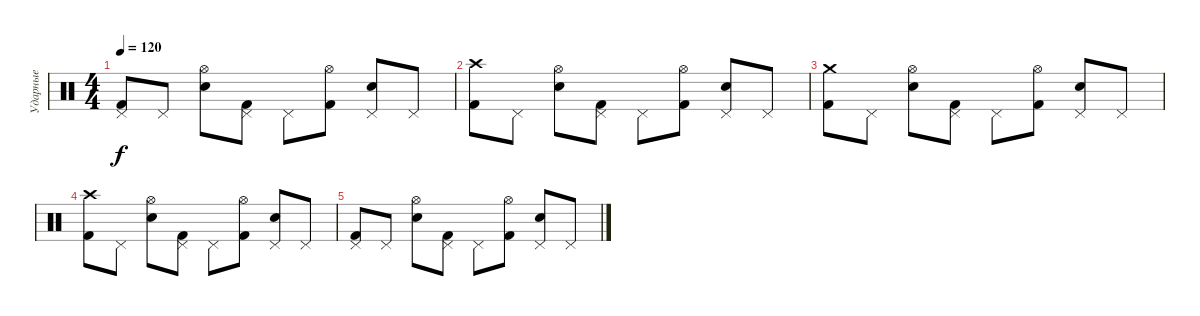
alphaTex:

\track ("Ударные" "Ударные") {instrument percussion}
\staff {score}
\articulation defaults
\ts (4 4)
\tempo 120
\clef neutral
\ks c
("Pedal Hi-Hat (hit)" "Kick (hit) 2").8{dy f} "Pedal Hi-Hat (hit)".8 ("Hi-Hat (open)" "Snare (hit) 2").8 ("Pedal Hi-Hat (hit)" "Kick (hit) 2").8 "Pedal Hi-Hat (hit)".8 ("Hi-Hat (open)" "Kick (hit) 2").8 ("Pedal Hi-Hat (hit)" "Snare (hit) 2").8 "Pedal Hi-Hat (hit)".8 |
("Crash high (hit)" "Kick (hit) 2").8 "Pedal Hi-Hat (hit)".8 ("Hi-Hat (open)" "Snare (hit) 2").8 ("Pedal Hi-Hat (hit)" "Kick (hit) 2").8 "Pedal Hi-Hat (hit)".8 ("Hi-Hat (open)" "Kick (hit) 2").8 ("Pedal Hi-Hat (hit)" "Snare (hit) 2").8 "Pedal Hi-Hat (hit)".8 |
("Crash medium (hit)" "Kick (hit) 2").8 "Pedal Hi-Hat (hit)".8 ("Hi-Hat (open)" "Snare (hit) 2").8 ("Pedal Hi-Hat (hit)" "Kick (hit) 2").8 "Pedal Hi-Hat (hit)".8 ("Hi-Hat (open)" "Kick (hit) 2").8 ("Pedal Hi-Hat (hit)" "Snare (hit) 2").8 "Pedal Hi-Hat (hit)".8 |
("Crash high (hit)" "Kick (hit) 2").8 "Pedal Hi-Hat (hit)".8 ("Hi-Hat (open)" "Snare (hit) 2").8 ("Pedal Hi-Hat (hit)" "Kick (hit) 2").8 "Pedal Hi-Hat (hit)".8 ("Hi-Hat (open)" "Kick (hit) 2").8 ("Pedal Hi-Hat (hit)" "Snare (hit) 2").8 "Pedal Hi-Hat (hit)".8 |
("Pedal Hi-Hat (hit)" "Kick (hit) 2").8 "Pedal Hi-Hat (hit)".8 ("Hi-Hat (open)" "Snare (hit) 2").8 ("Pedal Hi-Hat (hit)" "Kick (hit) 2").8 "Pedal Hi-Hat (hit)".8 ("Hi-Hat (open)" "Kick (hit) 2").8 ("Pedal Hi-Hat (hit)" "Snare (hit) 2").8 "Pedal Hi-Hat (hit)".8
